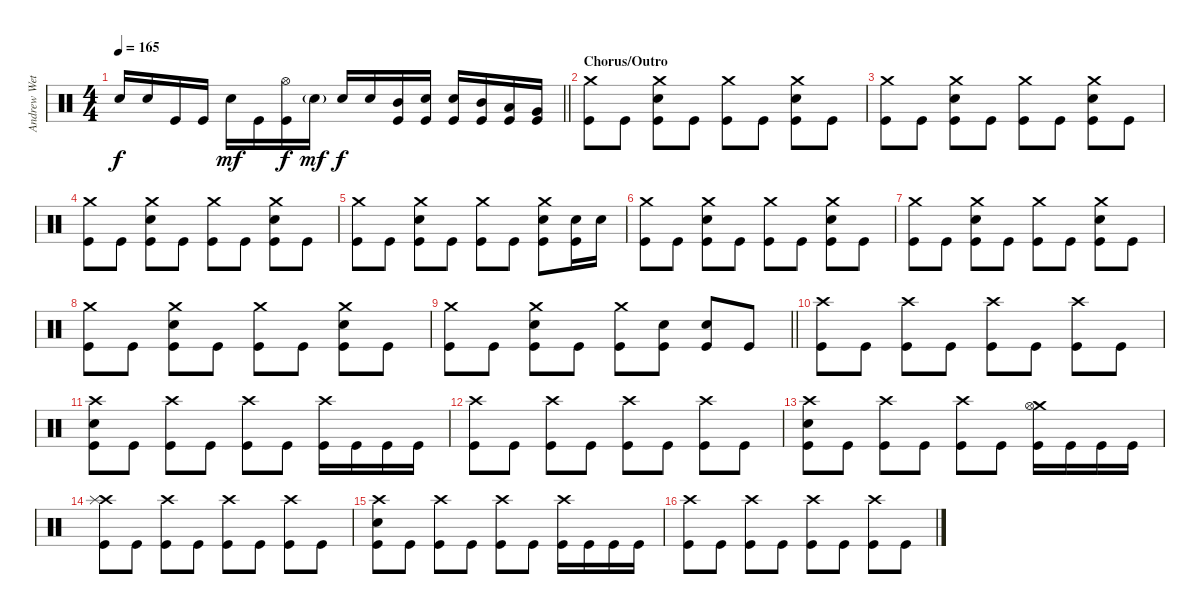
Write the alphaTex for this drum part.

\track ("Andrew Wetzel" "Andrew Wet") {instrument percussion}
\staff {score}
\articulation defaults
\ts (4 4)
\tempo 165
\clef neutral
\barLineRight lightlight
\ks c "Snare (hit) 2".16{dy f} "Snare (hit) 2".16 "Kick (hit)".16 "Kick (hit)".16 "Snare (hit) 2".16{dy mf} "Kick (hit)".16
("Hi-Hat (open)" "Kick (hit)").16{dy f} "Snare (hit) 2"{g}.16{dy mf} "Snare (hit) 2".16{dy f} "Snare (hit) 2".16 ("Mid Tom (hit)" "Kick (hit)").16 ("Snare (hit) 2" "Kick (hit)").16 ("Snare (hit) 2" "Kick (hit)").16 ("Mid Tom (hit)" "Kick (hit)").16 ("Low Tom (hit)" "Kick (hit)").16 ("Very Low Tom (hit)" "Kick (hit)").16 |
\section ("" "Chorus/Outro")
("Crash medium (hit)" "Kick (hit)").8 "Kick (hit)".8 ("Crash medium (hit)" "Snare (hit) 2" "Kick (hit)").8 "Kick (hit)".8 ("Crash medium (hit)" "Kick (hit)").8 "Kick (hit)".8 ("Crash medium (hit)" "Snare (hit) 2" "Kick (hit)").8 "Kick (hit)".8 |
("Crash medium (hit)" "Kick (hit)").8 "Kick (hit)".8 ("Crash medium (hit)" "Snare (hit) 2" "Kick (hit)").8 "Kick (hit)".8 ("Crash medium (hit)" "Kick (hit)").8 "Kick (hit)".8 ("Crash medium (hit)" "Snare (hit) 2" "Kick (hit)").8 "Kick (hit)".8 |
("Crash medium (hit)" "Kick (hit)").8 "Kick (hit)".8 ("Crash medium (hit)" "Snare (hit) 2" "Kick (hit)").8 "Kick (hit)".8 ("Crash medium (hit)" "Kick (hit)").8 "Kick (hit)".8 ("Crash medium (hit)" "Snare (hit) 2" "Kick (hit)").8 "Kick (hit)".8 |
("Crash medium (hit)" "Kick (hit)").8 "Kick (hit)".8 ("Crash medium (hit)" "Snare (hit) 2" "Kick (hit)").8 "Kick (hit)".8 ("Crash medium (hit)" "Kick (hit)").8 "Kick (hit)".8 ("Crash medium (hit)" "Snare (hit) 2" "Kick (hit)").8 ("Snare (hit) 2" "Kick (hit)").16 "Snare (hit) 2".16 |
("Crash medium (hit)" "Kick (hit)").8 "Kick (hit)".8 ("Crash medium (hit)" "Snare (hit) 2" "Kick (hit)").8 "Kick (hit)".8 ("Crash medium (hit)" "Kick (hit)").8 "Kick (hit)".8 ("Crash medium (hit)" "Snare (hit) 2" "Kick (hit)").8 "Kick (hit)".8 |
("Crash medium (hit)" "Kick (hit)").8 "Kick (hit)".8 ("Crash medium (hit)" "Snare (hit) 2" "Kick (hit)").8 "Kick (hit)".8 ("Crash medium (hit)" "Kick (hit)").8 "Kick (hit)".8 ("Crash medium (hit)" "Snare (hit) 2" "Kick (hit)").8 "Kick (hit)".8 |
("Crash medium (hit)" "Kick (hit)").8 "Kick (hit)".8 ("Crash medium (hit)" "Snare (hit) 2" "Kick (hit)").8 "Kick (hit)".8 ("Crash medium (hit)" "Kick (hit)").8 "Kick (hit)".8 ("Crash medium (hit)" "Snare (hit) 2" "Kick (hit)").8 "Kick (hit)".8 |
\barLineRight lightlight
("Crash medium (hit)" "Kick (hit)").8 "Kick (hit)".8 ("Crash medium (hit)" "Snare (hit) 2" "Kick (hit)").8 "Kick (hit)".8 ("Crash medium (hit)" "Kick (hit)").8 ("Snare (hit) 2" "Kick (hit)").8 ("Snare (hit) 2" "Kick (hit)").8 "Kick (hit)".8 |
("Crash high (hit)" "Kick (hit)").8 "Kick (hit)".8 ("Crash high (hit)" "Kick (hit)").8 "Kick (hit)".8 ("Crash high (hit)" "Kick (hit)").8 "Kick (hit)".8 ("Crash high (hit)" "Kick (hit)").8 "Kick (hit)".8 |
("Crash high (hit)" "Snare (hit) 2" "Kick (hit)").8 "Kick (hit)".8 ("Crash high (hit)" "Kick (hit)").8 "Kick (hit)".8 ("Crash high (hit)" "Kick (hit)").8 "Kick (hit)".8 ("Crash high (hit)" "Kick (hit)").16 "Kick (hit)".16 "Kick (hit)".16 "Kick (hit)".16 |
("Crash high (hit)" "Kick (hit)").8 "Kick (hit)".8 ("Crash high (hit)" "Kick (hit)").8 "Kick (hit)".8 ("Crash high (hit)" "Kick (hit)").8 "Kick (hit)".8 ("Crash high (hit)" "Kick (hit)").8 "Kick (hit)".8 |
("Crash high (hit)" "Snare (hit) 2" "Kick (hit)").8 "Kick (hit)".8 ("Crash high (hit)" "Kick (hit)").8 "Kick (hit)".8 ("Crash high (hit)" "Kick (hit)").8 "Kick (hit)".8 ("Crash medium (hit)" "Hi-Hat (open)" "Kick (hit)").16 "Kick (hit)".16 "Kick (hit)".16 "Kick (hit)".16 |
("Crash high (hit)" "Splash (hit)" "Kick (hit)").8 "Kick (hit)".8 ("Crash high (hit)" "Kick (hit)").8 "Kick (hit)".8 ("Crash high (hit)" "Kick (hit)").8 "Kick (hit)".8 ("Crash high (hit)" "Kick (hit)").8 "Kick (hit)".8 |
("Crash high (hit)" "Snare (hit) 2" "Kick (hit)").8 "Kick (hit)".8 ("Crash high (hit)" "Kick (hit)").8 "Kick (hit)".8 ("Crash high (hit)" "Kick (hit)").8 "Kick (hit)".8 ("Crash high (hit)" "Kick (hit)").16 "Kick (hit)".16 "Kick (hit)".16 "Kick (hit)".16 |
("Crash high (hit)" "Kick (hit)").8 "Kick (hit)".8 ("Crash high (hit)" "Kick (hit)").8 "Kick (hit)".8 ("Crash high (hit)" "Kick (hit)").8 "Kick (hit)".8 ("Crash high (hit)" "Kick (hit)").8 "Kick (hit)".8
